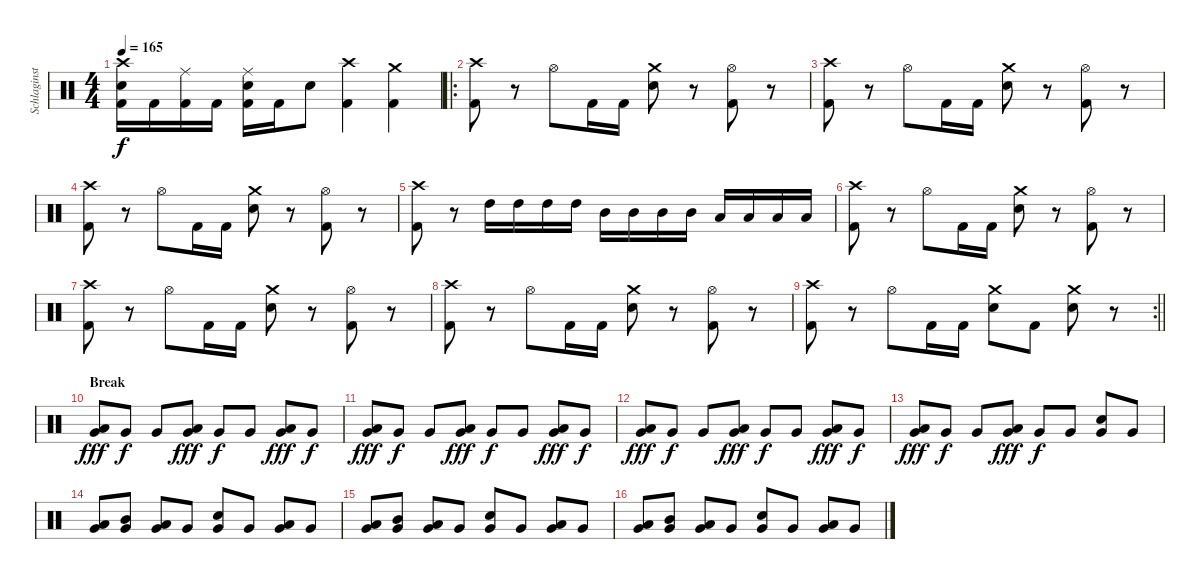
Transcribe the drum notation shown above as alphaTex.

\track ("Schlaginstrumente - Auswahl" "Schlaginst") {instrument percussion}
\staff {score}
\articulation defaults
\ts (4 4)
\tempo 165
\clef neutral
\ks c
("Crash high (hit)" "Electric Snare (hit)" "Kick (hit) 2").16{dy f} "Kick (hit) 2".16 ("Ride (middle)" "Kick (hit) 2").16 "Kick (hit) 2".16 ("Ride (middle)" "Electric Snare (hit)" "Kick (hit) 2").16 "Kick (hit) 2".16 "Electric Snare (hit)".8 ("Crash high (hit)" "Kick (hit) 2").4 ("Crash medium (hit)" "Kick (hit) 2").4 |
\ro
("Crash high (hit)" "Kick (hit) 2").8 r.8 "Hi-Hat (open)".8 "Kick (hit) 2".16 "Kick (hit) 2".16 ("Crash medium (hit)" "Electric Snare (hit)").8 r.8 ("Hi-Hat (open)" "Kick (hit) 2").8 r.8 |
("Crash high (hit)" "Kick (hit) 2").8 r.8 "Hi-Hat (open)".8 "Kick (hit) 2".16 "Kick (hit) 2".16 ("Crash medium (hit)" "Electric Snare (hit)").8 r.8 ("Hi-Hat (open)" "Kick (hit) 2").8 r.8 |
("Crash high (hit)" "Kick (hit) 2").8 r.8 "Hi-Hat (open)".8 "Kick (hit) 2".16 "Kick (hit) 2".16 ("Crash medium (hit)" "Electric Snare (hit)").8 r.8 ("Hi-Hat (open)" "Kick (hit) 2").8 r.8 |
("Crash high (hit)" "Kick (hit) 2").8 r.8 "High Tom (hit)".16 "High Tom (hit)".16 "High Tom (hit)".16 "High Tom (hit)".16 "Mid Tom (hit)".16 "Mid Tom (hit)".16 "Mid Tom (hit)".16 "Mid Tom (hit)".16 "Low Tom (hit)".16 "Low Tom (hit)".16 "Low Tom (hit)".16 "Low Tom (hit)".16 |
("Crash high (hit)" "Kick (hit) 2").8 r.8 "Hi-Hat (open)".8 "Kick (hit) 2".16 "Kick (hit) 2".16 ("Crash medium (hit)" "Electric Snare (hit)").8 r.8 ("Hi-Hat (open)" "Kick (hit) 2").8 r.8 |
("Crash high (hit)" "Kick (hit) 2").8 r.8 "Hi-Hat (open)".8 "Kick (hit) 2".16 "Kick (hit) 2".16 ("Crash medium (hit)" "Electric Snare (hit)").8 r.8 ("Hi-Hat (open)" "Kick (hit) 2").8 r.8 |
("Crash high (hit)" "Kick (hit) 2").8 r.8 "Hi-Hat (open)".8 "Kick (hit) 2".16 "Kick (hit) 2".16 ("Crash medium (hit)" "Electric Snare (hit)").8 r.8 ("Hi-Hat (open)" "Kick (hit) 2").8 r.8 |
\rc 2
\barLineRight lightlight
("Crash high (hit)" "Kick (hit) 2").8 r.8 "Hi-Hat (open)".8 "Kick (hit) 2".16 "Kick (hit) 2".16 ("Crash medium (hit)" "Electric Snare (hit)").8 "Kick (hit) 2".8 ("Crash medium (hit)" "Electric Snare (hit)").8 r.8 |
\section ("" "Break")
("Very Low Tom (hit)" "Low Floor Tom (hit)").8{dy fff} "Very Low Tom (hit)".8{dy f} "Very Low Tom (hit)".8 ("Very Low Tom (hit)" "Low Floor Tom (hit)").8{dy fff} "Very Low Tom (hit)".8{dy f} "Very Low Tom (hit)".8 ("Very Low Tom (hit)" "Low Floor Tom (hit)").8{dy fff} "Very Low Tom (hit)".8{dy f} |
("Very Low Tom (hit)" "Low Floor Tom (hit)").8{dy fff} "Very Low Tom (hit)".8{dy f} "Very Low Tom (hit)".8 ("Very Low Tom (hit)" "Low Floor Tom (hit)").8{dy fff} "Very Low Tom (hit)".8{dy f} "Very Low Tom (hit)".8 ("Very Low Tom (hit)" "Low Floor Tom (hit)").8{dy fff} "Very Low Tom (hit)".8{dy f} |
("Very Low Tom (hit)" "Low Floor Tom (hit)").8{dy fff} "Very Low Tom (hit)".8{dy f} "Very Low Tom (hit)".8 ("Very Low Tom (hit)" "Low Floor Tom (hit)").8{dy fff} "Very Low Tom (hit)".8{dy f} "Very Low Tom (hit)".8 ("Very Low Tom (hit)" "Low Floor Tom (hit)").8{dy fff} "Very Low Tom (hit)".8{dy f} |
("Very Low Tom (hit)" "Low Floor Tom (hit)").8{dy fff} "Very Low Tom (hit)".8{dy f} "Very Low Tom (hit)".8 ("Very Low Tom (hit)" "Low Floor Tom (hit)").8{dy fff} "Very Low Tom (hit)".8{dy f} "Very Low Tom (hit)".8 ("Very Low Tom (hit)" "Electric Snare (hit)").8 "Very Low Tom (hit)".8 |
("Very Low Tom (hit)" "Low Tom (hit)").8 ("Very Low Tom (hit)" "Mid Tom (hit)").8 ("Very Low Tom (hit)" "Low Floor Tom (hit)").8 "Very Low Tom (hit)".8 ("Very Low Tom (hit)" "Electric Snare (hit)").8 "Very Low Tom (hit)".8 ("Very Low Tom (hit)" "Low Floor Tom (hit)").8 "Very Low Tom (hit)".8 |
("Very Low Tom (hit)" "Low Tom (hit)").8 ("Very Low Tom (hit)" "Mid Tom (hit)").8 ("Very Low Tom (hit)" "Low Floor Tom (hit)").8 "Very Low Tom (hit)".8 ("Very Low Tom (hit)" "Electric Snare (hit)").8 "Very Low Tom (hit)".8 ("Very Low Tom (hit)" "Low Floor Tom (hit)").8 "Very Low Tom (hit)".8 |
("Very Low Tom (hit)" "Low Tom (hit)").8 ("Very Low Tom (hit)" "Mid Tom (hit)").8 ("Very Low Tom (hit)" "Low Floor Tom (hit)").8 "Very Low Tom (hit)".8 ("Very Low Tom (hit)" "Electric Snare (hit)").8 "Very Low Tom (hit)".8 ("Very Low Tom (hit)" "Low Floor Tom (hit)").8 "Very Low Tom (hit)".8
